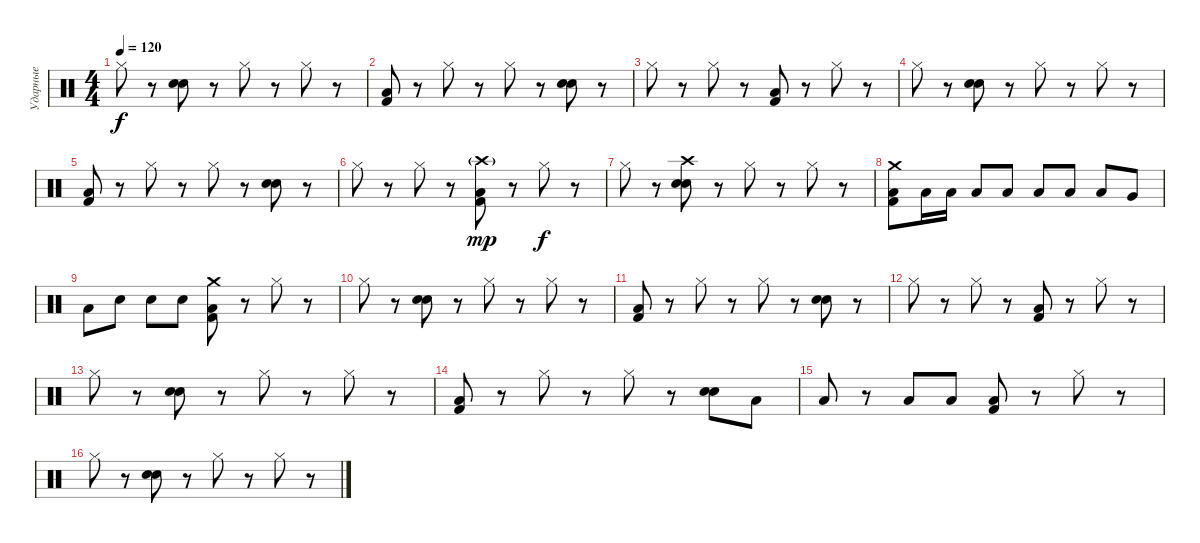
\track ("Ударные" "Ударные") {instrument percussion}
\staff {score}
\articulation defaults
\ts (4 4)
\tempo 120
\clef neutral
\ks c "Hi-Hat (closed)".8{dy f}
r.8 ("Snare (hit) 2" "Electric Snare (hit)").8 r.8 "Hi-Hat (closed)".8 r.8 "Hi-Hat (closed)".8 r.8 |
("Kick (hit) 2" "Low Floor Tom (hit)").8 r.8 "Hi-Hat (closed)".8 r.8 "Hi-Hat (closed)".8 r.8 ("Snare (hit) 2" "Electric Snare (hit)").8 r.8 |
"Hi-Hat (closed)".8 r.8 "Hi-Hat (closed)".8 r.8 ("Kick (hit) 2" "Low Floor Tom (hit)").8 r.8 "Hi-Hat (closed)".8 r.8 |
"Hi-Hat (closed)".8 r.8 ("Snare (hit) 2" "Electric Snare (hit)").8 r.8 "Hi-Hat (closed)".8 r.8 "Hi-Hat (closed)".8 r.8 |
("Kick (hit) 2" "Low Floor Tom (hit)").8 r.8 "Hi-Hat (closed)".8 r.8 "Hi-Hat (closed)".8 r.8 ("Snare (hit) 2" "Electric Snare (hit)").8 r.8 |
"Hi-Hat (closed)".8 r.8 "Hi-Hat (closed)".8 r.8 ("Crash high (hit)"{g} "Kick (hit) 2" "Low Floor Tom (hit)").8{dy mp} r.8 "Hi-Hat (closed)".8{dy f} r.8 |
"Hi-Hat (closed)".8 r.8 ("Crash high (hit)" "Snare (hit) 2" "Electric Snare (hit)").8 r.8 "Hi-Hat (closed)".8 r.8 "Hi-Hat (closed)".8 r.8 |
("Crash medium (hit)" "Kick (hit) 2" "Low Floor Tom (hit)").8 "Low Tom (hit)".16 "Low Tom (hit)".16 "Low Tom (hit)".8 "Low Tom (hit)".8 "Low Tom (hit)".8 "Low Tom (hit)".8 "Low Tom (hit)".8 "Very Low Tom (hit)".8 |
"Low Floor Tom (hit)".8 "Snare (hit) 2".8 "Snare (hit) 2".8 "Snare (hit) 2".8 ("Crash medium (hit)" "Kick (hit) 2" "Low Floor Tom (hit)").8 r.8 "Hi-Hat (closed)".8 r.8 |
"Hi-Hat (closed)".8 r.8 ("Snare (hit) 2" "Electric Snare (hit)").8 r.8 "Hi-Hat (closed)".8 r.8 "Hi-Hat (closed)".8 r.8 |
("Kick (hit) 2" "Low Floor Tom (hit)").8 r.8 "Hi-Hat (closed)".8 r.8 "Hi-Hat (closed)".8 r.8 ("Snare (hit) 2" "Electric Snare (hit)").8 r.8 |
"Hi-Hat (closed)".8 r.8 "Hi-Hat (closed)".8 r.8 ("Kick (hit) 2" "Low Floor Tom (hit)").8 r.8 "Hi-Hat (closed)".8 r.8 |
"Hi-Hat (closed)".8 r.8 ("Snare (hit) 2" "Electric Snare (hit)").8 r.8 "Hi-Hat (closed)".8 r.8 "Hi-Hat (closed)".8 r.8 |
("Kick (hit) 2" "Low Floor Tom (hit)").8 r.8 "Hi-Hat (closed)".8 r.8 "Hi-Hat (closed)".8 r.8 ("Snare (hit) 2" "Electric Snare (hit)").8 "Low Tom (hit)".8 |
"Low Tom (hit)".8 r.8 "Low Tom (hit)".8 "Low Tom (hit)".8 ("Kick (hit) 2" "Low Floor Tom (hit)").8 r.8 "Hi-Hat (closed)".8 r.8 |
"Hi-Hat (closed)".8 r.8 ("Snare (hit) 2" "Electric Snare (hit)").8 r.8 "Hi-Hat (closed)".8 r.8 "Hi-Hat (closed)".8 r.8
